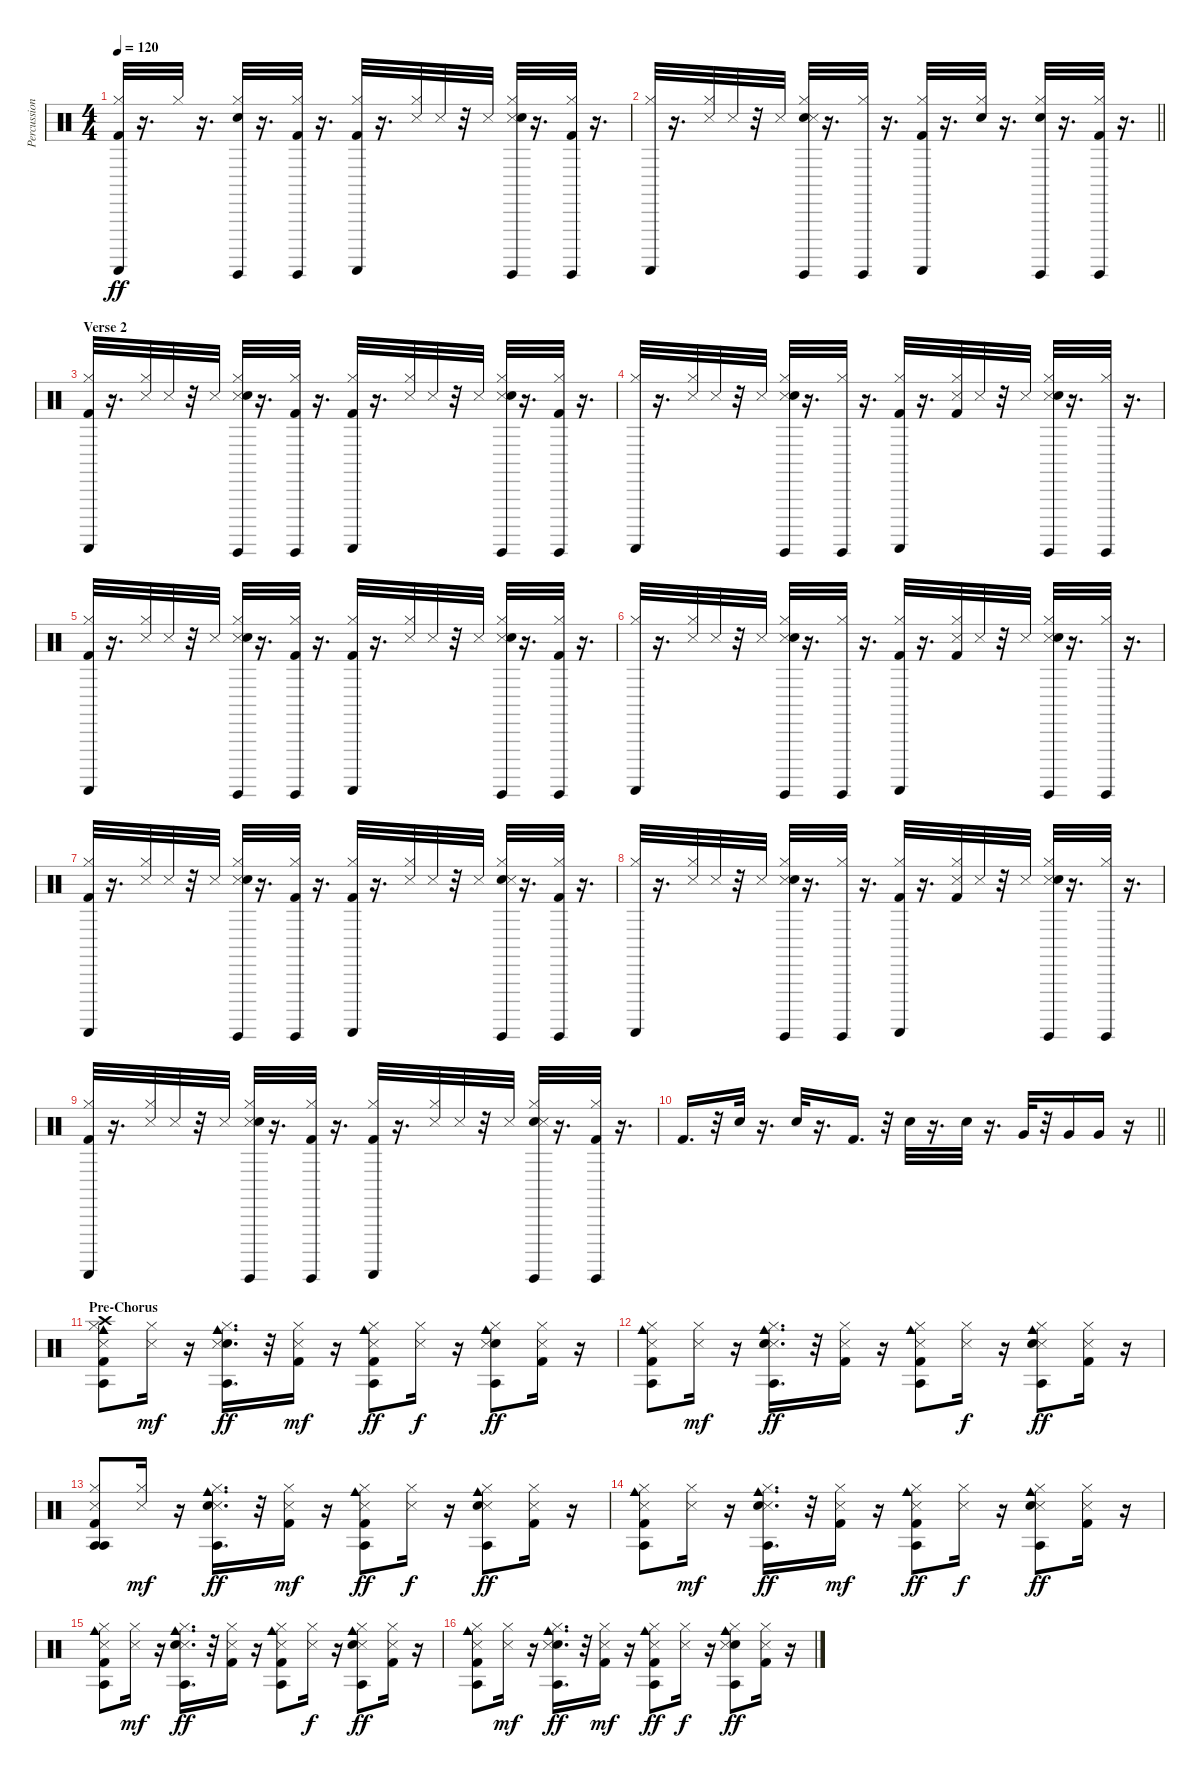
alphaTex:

\track ("Percussion" "Percussion") {instrument percussion}
\staff {score}
\articulation defaults
\ts (4 4)
\tempo 120
\clef neutral
\ks c
("Guiro (scrap-return)" "Hi-Hat (closed)" "Kick (hit) 2").32{dy ff} r.16{d} "Hi-Hat (closed)".32 r.16{d} ("Guiro (hit)" "Hi-Hat (closed)" "Snare (hit) 2").32 r.16{d} ("Guiro (hit)" "Hi-Hat (closed)" "Kick (hit) 2").32 r.16{d} ("Guiro (scrap-return)" "Hi-Hat (closed)" "Kick (hit) 2").32 r.16{d} ("Hi-Hat (closed)" "Snare (side stick) 3").32 "Snare (side stick) 3".32 r.32 "Snare (side stick) 3".32 ("Guiro (hit)" "Hi-Hat (closed)" "Snare (side stick) 3" "Snare (hit) 2").32 r.16{d} ("Kick (hit) 2" "Guiro (hit)" "Hi-Hat (closed)").32 r.16{d} |
\barLineRight lightlight
("Guiro (scrap-return)" "Hi-Hat (closed)").32 r.16{d} ("Hi-Hat (closed)" "Snare (side stick) 3").32 "Snare (side stick) 3".32 r.32 "Snare (side stick) 3".32 ("Guiro (hit)" "Hi-Hat (closed)" "Snare (hit) 2" "Snare (side stick) 3").32 r.16{d} ("Guiro (hit)" "Hi-Hat (closed)").32 r.16{d} ("Hi-Hat (closed)" "Kick (hit) 2" "Guiro (scrap-return)").32 r.16{d} ("Electric Snare (hit)" "Hi-Hat (closed)").32 r.16{d} ("Hi-Hat (closed)" "Electric Snare (hit)" "Guiro (hit)").32 r.16{d} ("Guiro (hit)" "Hi-Hat (closed)" "Kick (hit) 2").32 r.16{d} |
\section ("" "Verse 2")
("Guiro (scrap-return)" "Hi-Hat (closed)" "Kick (hit) 2").32 r.16{d} ("Hi-Hat (closed)" "Snare (side stick) 3").32 "Snare (side stick) 3".32 r.32 "Snare (side stick) 3".32 ("Guiro (hit)" "Snare (side stick) 3" "Hi-Hat (closed)" "Snare (hit) 2").32 r.16{d} ("Guiro (hit)" "Hi-Hat (closed)" "Kick (hit) 2").32 r.16{d} ("Guiro (scrap-return)" "Hi-Hat (closed)" "Kick (hit) 2").32 r.16{d} ("Snare (side stick) 3" "Hi-Hat (closed)").32 "Snare (side stick) 3".32 r.32 "Snare (side stick) 3".32 ("Snare (side stick) 3" "Guiro (hit)" "Hi-Hat (closed)" "Snare (hit) 2").32 r.16{d} ("Guiro (hit)" "Hi-Hat (closed)" "Kick (hit) 2").32 r.16{d} |
("Guiro (scrap-return)" "Hi-Hat (closed)").32 r.16{d} ("Snare (side stick) 3" "Hi-Hat (closed)").32 "Snare (side stick) 3".32 r.32 "Snare (side stick) 3".32 ("Guiro (hit)" "Hi-Hat (closed)" "Snare (side stick) 3" "Snare (hit) 2").32 r.16{d} ("Guiro (hit)" "Hi-Hat (closed)").32 r.16{d} ("Kick (hit) 2" "Guiro (scrap-return)" "Hi-Hat (closed)").32 r.16{d} ("Snare (side stick) 3" "Hi-Hat (closed)" "Kick (hit) 2").32 "Snare (side stick) 3".32 r.32 "Snare (side stick) 3".32 ("Guiro (hit)" "Hi-Hat (closed)" "Snare (side stick) 3" "Snare (hit) 2").32 r.16{d} ("Guiro (hit)" "Hi-Hat (closed)").32 r.16{d} |
("Guiro (scrap-return)" "Hi-Hat (closed)" "Kick (hit) 2").32 r.16{d} ("Hi-Hat (closed)" "Snare (side stick) 3").32 "Snare (side stick) 3".32 r.32 "Snare (side stick) 3".32 ("Guiro (hit)" "Snare (side stick) 3" "Hi-Hat (closed)" "Snare (hit) 2").32 r.16{d} ("Guiro (hit)" "Hi-Hat (closed)" "Kick (hit) 2").32 r.16{d} ("Guiro (scrap-return)" "Hi-Hat (closed)" "Kick (hit) 2").32 r.16{d} ("Snare (side stick) 3" "Hi-Hat (closed)").32 "Snare (side stick) 3".32 r.32 "Snare (side stick) 3".32 ("Snare (side stick) 3" "Guiro (hit)" "Hi-Hat (closed)" "Snare (hit) 2").32 r.16{d} ("Guiro (hit)" "Hi-Hat (closed)" "Kick (hit) 2").32 r.16{d} |
("Guiro (scrap-return)" "Hi-Hat (closed)").32 r.16{d} ("Snare (side stick) 3" "Hi-Hat (closed)").32 "Snare (side stick) 3".32 r.32 "Snare (side stick) 3".32 ("Guiro (hit)" "Hi-Hat (closed)" "Snare (side stick) 3" "Snare (hit) 2").32 r.16{d} ("Guiro (hit)" "Hi-Hat (closed)").32 r.16{d} ("Kick (hit) 2" "Guiro (scrap-return)" "Hi-Hat (closed)").32 r.16{d} ("Snare (side stick) 3" "Hi-Hat (closed)" "Kick (hit) 2").32 "Snare (side stick) 3".32 r.32 "Snare (side stick) 3".32 ("Guiro (hit)" "Hi-Hat (closed)" "Snare (side stick) 3" "Snare (hit) 2").32 r.16{d} ("Guiro (hit)" "Hi-Hat (closed)").32 r.16{d} |
("Guiro (scrap-return)" "Hi-Hat (closed)" "Kick (hit) 2").32 r.16{d} ("Hi-Hat (closed)" "Snare (side stick) 3").32 "Snare (side stick) 3".32 r.32 "Snare (side stick) 3".32 ("Guiro (hit)" "Hi-Hat (closed)" "Snare (side stick) 3" "Snare (hit) 2").32 r.16{d} ("Guiro (hit)" "Hi-Hat (closed)" "Kick (hit) 2").32 r.16{d} ("Guiro (scrap-return)" "Hi-Hat (closed)" "Kick (hit) 2").32 r.16{d} ("Snare (side stick) 3" "Hi-Hat (closed)").32 "Snare (side stick) 3".32 r.32 "Snare (side stick) 3".32 ("Snare (hit) 2" "Hi-Hat (closed)" "Guiro (hit)" "Snare (side stick) 3").32 r.16{d} ("Kick (hit) 2" "Guiro (hit)" "Hi-Hat (closed)").32 r.16{d} |
("Hi-Hat (closed)" "Guiro (scrap-return)").32 r.16{d} ("Hi-Hat (closed)" "Snare (side stick) 3").32 "Snare (side stick) 3".32 r.32 "Snare (side stick) 3".32 ("Hi-Hat (closed)" "Guiro (hit)" "Snare (side stick) 3" "Snare (hit) 2").32 r.16{d} ("Hi-Hat (closed)" "Guiro (hit)").32 r.16{d} ("Kick (hit) 2" "Guiro (scrap-return)" "Hi-Hat (closed)").32 r.16{d} ("Hi-Hat (closed)" "Snare (side stick) 3" "Kick (hit) 2").32 "Snare (side stick) 3".32 r.32 "Snare (side stick) 3".32 ("Hi-Hat (closed)" "Guiro (hit)" "Snare (side stick) 3" "Snare (hit) 2").32 r.16{d} ("Hi-Hat (closed)" "Guiro (hit)").32 r.16{d} |
("Guiro (scrap-return)" "Hi-Hat (closed)" "Kick (hit) 2").32 r.16{d} ("Hi-Hat (closed)" "Snare (side stick) 3").32 "Snare (side stick) 3".32 r.32 "Snare (side stick) 3".32 ("Guiro (hit)" "Hi-Hat (closed)" "Snare (side stick) 3" "Snare (hit) 2").32 r.16{d} ("Guiro (hit)" "Hi-Hat (closed)" "Kick (hit) 2").32 r.16{d} ("Guiro (scrap-return)" "Hi-Hat (closed)" "Kick (hit) 2").32 r.16{d} ("Snare (side stick) 3" "Hi-Hat (closed)").32 "Snare (side stick) 3".32 r.32 "Snare (side stick) 3".32 ("Snare (hit) 2" "Hi-Hat (closed)" "Guiro (hit)" "Snare (side stick) 3").32 r.16{d} ("Kick (hit) 2" "Guiro (hit)" "Hi-Hat (closed)").32 r.16{d} |
\barLineRight lightlight "Kick (hit) 2".16{d}
r.32 "Electric Snare (hit)".32 r.16{d} "Electric Snare (hit)".32 r.16{d} "Kick (hit) 2".16{d} r.32 "Electric Snare (hit)".32 r.16{d} "Electric Snare (hit)".32 r.16{d} "Very Low Tom (hit)".32 r.32 "Very Low Tom (hit)".16 "Very Low Tom (hit)".16 r.16 |
\section ("" "Pre-Chorus")
("Kick (hit) 2" "Hi-Hat (closed)" "Agogo tow (hit)" "Crash high (hit)" "Cowbell medium (hit)" "Snare (side stick) 3").8 ("Hi-Hat (closed)" "Snare (side stick) 3").16{dy mf} r.16 ("Snare (hit) 2" "Hi-Hat (closed)" "Agogo tow (hit)" "Cowbell medium (hit)" "Snare (side stick) 3").16{d dy ff} r.32 ("Kick (hit) 2" "Hi-Hat (closed)" "Snare (side stick) 3").16{dy mf} r.16 ("Kick (hit) 2" "Hi-Hat (closed)" "Agogo tow (hit)" "Cowbell medium (hit)" "Snare (side stick) 3").8{dy ff} ("Hi-Hat (closed)" "Snare (side stick) 3").16{dy f} r.16 ("Snare (hit) 2" "Hi-Hat (closed)" "Agogo tow (hit)" "Cowbell medium (hit)" "Snare (side stick) 3").8{dy ff} ("Kick (hit) 2" "Hi-Hat (closed)" "Snare (side stick) 3").16 r.16 |
("Cowbell medium (hit)" "Snare (side stick) 3" "Hi-Hat (closed)" "Agogo tow (hit)" "Kick (hit) 2").8 ("Snare (side stick) 3" "Hi-Hat (closed)").16{dy mf} r.16 ("Cowbell medium (hit)" "Snare (side stick) 3" "Hi-Hat (closed)" "Agogo tow (hit)" "Snare (hit) 2").16{d dy ff} r.32 ("Snare (side stick) 3" "Hi-Hat (closed)" "Kick (hit) 2").16 r.16 ("Cowbell medium (hit)" "Snare (side stick) 3" "Hi-Hat (closed)" "Agogo tow (hit)" "Kick (hit) 2").8 ("Snare (side stick) 3" "Hi-Hat (closed)").16{dy f} r.16 ("Cowbell medium (hit)" "Snare (side stick) 3" "Hi-Hat (closed)" "Agogo tow (hit)" "Snare (hit) 2").8{dy ff} ("Snare (side stick) 3" "Hi-Hat (closed)" "Kick (hit) 2").16 r.16 |
("Snare (side stick) 3" "Agogo tow (hit)" "Kick (hit) 2" "Agogo tow (hit)" "Hi-Hat (closed)").8 ("Snare (side stick) 3" "Hi-Hat (closed)").16{dy mf} r.16 ("Snare (side stick) 3" "Agogo tow (hit)" "Snare (hit) 2" "Cowbell medium (hit)" "Hi-Hat (closed)").16{d dy ff} r.32 ("Snare (side stick) 3" "Kick (hit) 2" "Hi-Hat (closed)").16{dy mf} r.16 ("Snare (side stick) 3" "Agogo tow (hit)" "Kick (hit) 2" "Cowbell medium (hit)" "Hi-Hat (closed)").8{dy ff} ("Snare (side stick) 3" "Hi-Hat (closed)").16{dy f} r.16 ("Snare (side stick) 3" "Agogo tow (hit)" "Snare (hit) 2" "Cowbell medium (hit)" "Hi-Hat (closed)").8{dy ff} ("Snare (side stick) 3" "Kick (hit) 2" "Hi-Hat (closed)").16 r.16 |
("Cowbell medium (hit)" "Agogo tow (hit)" "Snare (side stick) 3" "Kick (hit) 2" "Hi-Hat (closed)").8 ("Snare (side stick) 3" "Hi-Hat (closed)").16{dy mf} r.16 ("Cowbell medium (hit)" "Agogo tow (hit)" "Snare (side stick) 3" "Snare (hit) 2" "Hi-Hat (closed)").16{d dy ff} r.32 ("Snare (side stick) 3" "Kick (hit) 2" "Hi-Hat (closed)").16{dy mf} r.16 ("Cowbell medium (hit)" "Agogo tow (hit)" "Snare (side stick) 3" "Kick (hit) 2" "Hi-Hat (closed)").8{dy ff} ("Snare (side stick) 3" "Hi-Hat (closed)").16{dy f} r.16 ("Cowbell medium (hit)" "Agogo tow (hit)" "Snare (side stick) 3" "Snare (hit) 2" "Hi-Hat (closed)").8{dy ff} ("Snare (side stick) 3" "Kick (hit) 2" "Hi-Hat (closed)").16 r.16 |
("Hi-Hat (closed)" "Cowbell medium (hit)" "Snare (side stick) 3" "Agogo tow (hit)" "Kick (hit) 2").8 ("Hi-Hat (closed)" "Snare (side stick) 3").16{dy mf} r.16 ("Hi-Hat (closed)" "Cowbell medium (hit)" "Snare (side stick) 3" "Agogo tow (hit)" "Snare (hit) 2").16{d dy ff} r.32 ("Hi-Hat (closed)" "Snare (side stick) 3" "Kick (hit) 2").16 r.16 ("Hi-Hat (closed)" "Cowbell medium (hit)" "Snare (side stick) 3" "Agogo tow (hit)" "Kick (hit) 2").8 ("Hi-Hat (closed)" "Snare (side stick) 3").16{dy f} r.16 ("Hi-Hat (closed)" "Cowbell medium (hit)" "Snare (side stick) 3" "Agogo tow (hit)" "Snare (hit) 2").8{dy ff} ("Hi-Hat (closed)" "Snare (side stick) 3" "Kick (hit) 2").16 r.16 |
("Kick (hit) 2" "Agogo tow (hit)" "Cowbell medium (hit)" "Snare (side stick) 3" "Hi-Hat (closed)").8 ("Snare (side stick) 3" "Hi-Hat (closed)").16{dy mf} r.16 ("Snare (hit) 2" "Agogo tow (hit)" "Cowbell medium (hit)" "Snare (side stick) 3" "Hi-Hat (closed)").16{d dy ff} r.32 ("Kick (hit) 2" "Snare (side stick) 3" "Hi-Hat (closed)").16{dy mf} r.16 ("Kick (hit) 2" "Agogo tow (hit)" "Cowbell medium (hit)" "Snare (side stick) 3" "Hi-Hat (closed)").8{dy ff} ("Snare (side stick) 3" "Hi-Hat (closed)").16{dy f} r.16 ("Snare (hit) 2" "Agogo tow (hit)" "Cowbell medium (hit)" "Snare (side stick) 3" "Hi-Hat (closed)").8{dy ff} ("Kick (hit) 2" "Snare (side stick) 3" "Hi-Hat (closed)").16 r.16
